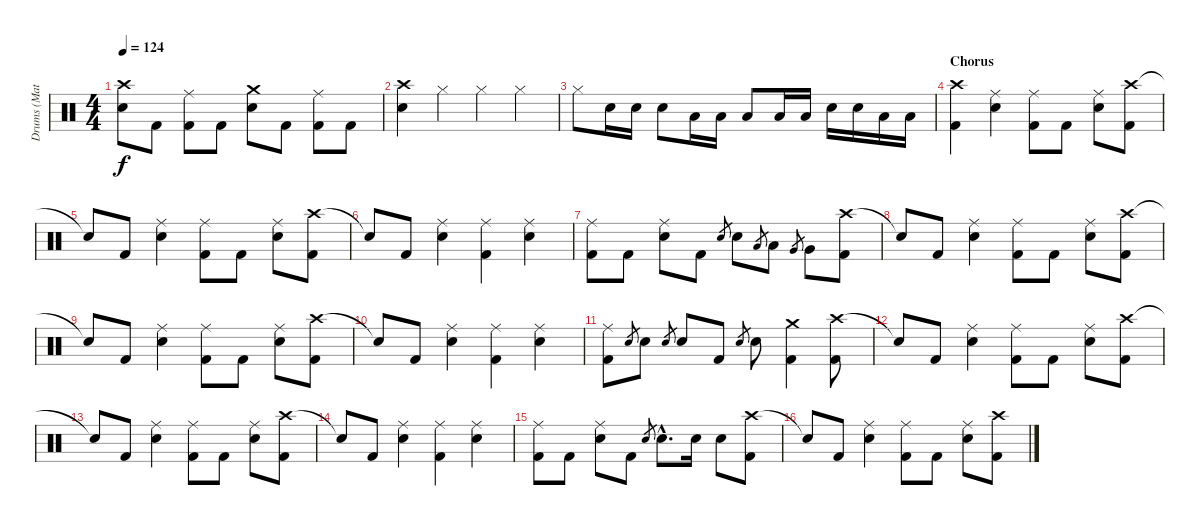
\track ("Drums (Matt)" "Drums (Mat") {instrument percussion}
\staff {score}
\articulation defaults
\ts (4 4)
\tempo 124
\clef neutral
\ks c
("Crash high (hit)" "Snare (hit) 2").8{dy f} "Kick (hit) 2".8 ("Ride (middle)" "Kick (hit) 2").8 "Kick (hit) 2".8 ("Crash medium (hit)" "Snare (hit) 2").8 "Kick (hit) 2".8 ("Ride (middle)" "Kick (hit) 2").8 "Kick (hit) 2".8 |
("Crash high (hit)" "Snare (hit) 2").4 "Hi-Hat (closed)".4 "Hi-Hat (closed)".4 "Hi-Hat (closed)".4 |
"Hi-Hat (closed)".8 "Snare (hit) 2".16 "Snare (hit) 2".16 "Snare (hit) 2".8 "Low Tom (hit)".16 "Low Tom (hit)".16 "Low Tom (hit)".8 "Low Tom (hit)".16 "Low Tom (hit)".16 "Snare (hit) 2".16 "Snare (hit) 2".16 "Low Tom (hit)".16 "Low Tom (hit)".16 |
\section ("" "Chorus")
("Crash high (hit)" "Kick (hit) 2").4 ("Ride (middle)" "Snare (hit) 2").4 ("Ride (middle)" "Kick (hit) 2").8 "Kick (hit) 2".8 ("Ride (middle)" "Snare (hit) 2").8 ("Crash high (hit)" "Kick (hit) 2").8 |
"Snare (hit)"{t}.8 "Kick (hit) 2".8 ("Ride (middle)" "Snare (hit) 2").4 ("Ride (middle)" "Kick (hit) 2").8 "Kick (hit) 2".8 ("Ride (middle)" "Snare (hit) 2").8 ("Crash high (hit)" "Kick (hit) 2").8 |
"Snare (hit)"{t}.8 "Kick (hit) 2".8 ("Ride (middle)" "Snare (hit) 2").4 ("Ride (middle)" "Kick (hit) 2").4 ("Ride (middle)" "Snare (hit) 2").4 |
("Ride (middle)" "Kick (hit) 2").8 "Kick (hit) 2".8 ("Ride (middle)" "Snare (hit) 2").8 "Kick (hit) 2".8 "Snare (hit) 2".8{gr} "Snare (hit) 2".8 "Low Tom (hit)".8{gr} "Low Tom (hit)".8 "Very Low Tom (hit)".8{gr} "Very Low Tom (hit)".8 ("Crash high (hit)" "Kick (hit) 2").8 |
"Snare (hit)"{t}.8 "Kick (hit) 2".8 ("Ride (middle)" "Snare (hit) 2").4 ("Ride (middle)" "Kick (hit) 2").8 "Kick (hit) 2".8 ("Ride (middle)" "Snare (hit) 2").8 ("Crash high (hit)" "Kick (hit) 2").8 |
"Snare (hit)"{t}.8 "Kick (hit) 2".8 ("Ride (middle)" "Snare (hit) 2").4 ("Ride (middle)" "Kick (hit) 2").8 "Kick (hit) 2".8 ("Ride (middle)" "Snare (hit) 2").8 ("Crash high (hit)" "Kick (hit) 2").8 |
"Snare (hit)"{t}.8 "Kick (hit) 2".8 ("Ride (middle)" "Snare (hit) 2").4 ("Ride (middle)" "Kick (hit) 2").4 ("Ride (middle)" "Snare (hit) 2").4 |
("Ride (middle)" "Kick (hit) 2").8 "Snare (hit) 2".8{gr} "Snare (hit) 2".8 "Snare (hit) 2".8{gr} "Snare (hit) 2".8 "Kick (hit) 2".8 "Snare (hit) 2".8{gr} "Snare (hit) 2".8 ("Crash medium (hit)" "Kick (hit) 2").4 ("Crash high (hit)" "Kick (hit) 2").8 |
"Snare (hit)"{t}.8 "Kick (hit) 2".8 ("Ride (middle)" "Snare (hit) 2").4 ("Ride (middle)" "Kick (hit) 2").8 "Kick (hit) 2".8 ("Ride (middle)" "Snare (hit) 2").8 ("Crash high (hit)" "Kick (hit) 2").8 |
"Snare (hit)"{t}.8 "Kick (hit) 2".8 ("Ride (middle)" "Snare (hit) 2").4 ("Ride (middle)" "Kick (hit) 2").8 "Kick (hit) 2".8 ("Ride (middle)" "Snare (hit) 2").8 ("Crash high (hit)" "Kick (hit) 2").8 |
"Snare (hit)"{t}.8 "Kick (hit) 2".8 ("Ride (middle)" "Snare (hit) 2").4 ("Ride (middle)" "Kick (hit) 2").4 ("Ride (middle)" "Snare (hit) 2").4 |
("Ride (middle)" "Kick (hit) 2").8 "Kick (hit) 2".8 ("Ride (middle)" "Snare (hit) 2").8 "Kick (hit) 2".8 "Snare (hit) 2".8{gr} "Snare (hit) 2"{hac}.8{d} "Snare (hit) 2".16 "Snare (hit) 2".8 ("Crash high (hit)" "Kick (hit) 2").8 |
"Snare (hit)"{t}.8 "Kick (hit) 2".8 ("Ride (middle)" "Snare (hit) 2").4 ("Ride (middle)" "Kick (hit) 2").8 "Kick (hit) 2".8 ("Ride (middle)" "Snare (hit) 2").8 ("Crash high (hit)" "Kick (hit) 2").8
